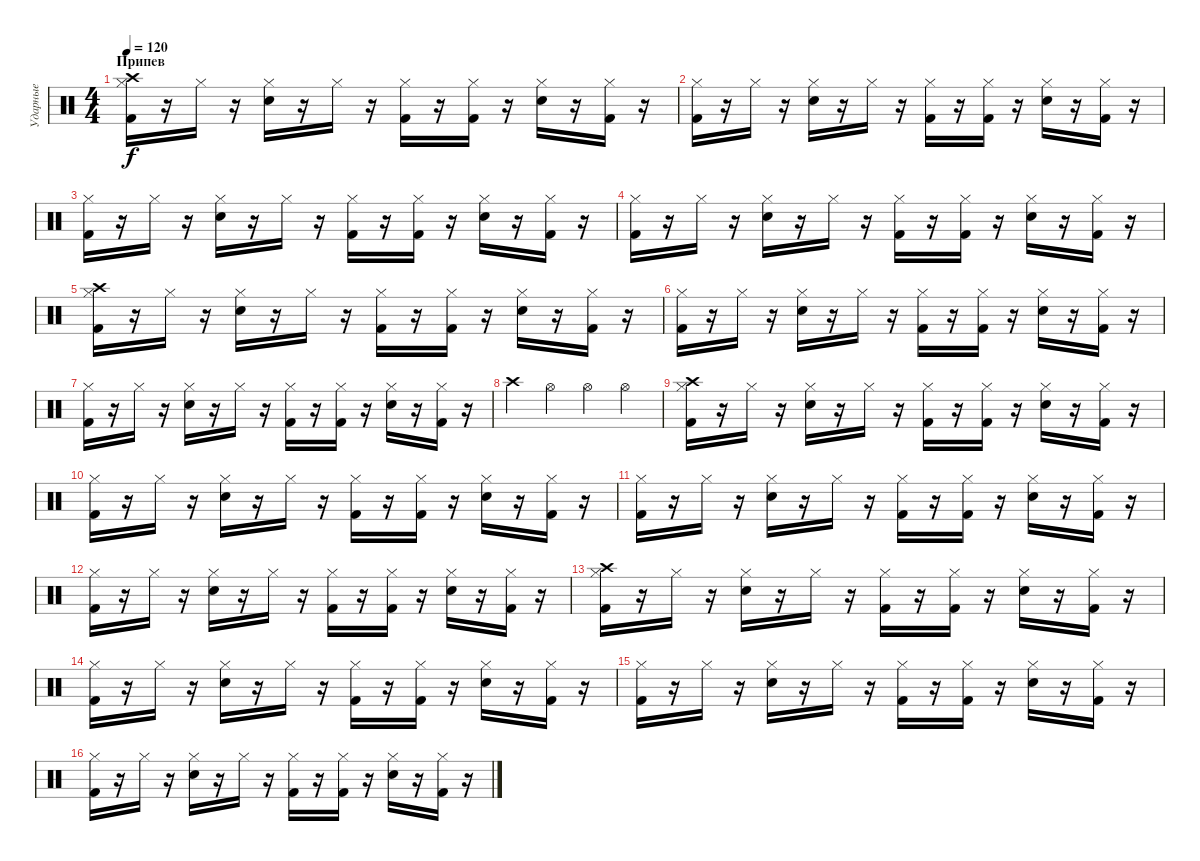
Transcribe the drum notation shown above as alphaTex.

\track ("Ударные" "Ударные") {instrument percussion}
\staff {score}
\articulation defaults
\ts (4 4)
\section ("" "Припев")
\tempo 120
\clef neutral
\ks c
("Hi-Hat (closed)" "Kick (hit) 2" "Crash high (hit)").16{dy f} r.16 "Hi-Hat (closed)".16 r.16 ("Hi-Hat (closed)" "Snare (hit) 2").16 r.16 "Hi-Hat (closed)".16 r.16 ("Hi-Hat (closed)" "Kick (hit) 2").16 r.16 ("Hi-Hat (closed)" "Kick (hit) 2").16 r.16 ("Hi-Hat (closed)" "Snare (hit) 2").16 r.16 ("Hi-Hat (closed)" "Kick (hit) 2").16 r.16 |
("Hi-Hat (closed)" "Kick (hit) 2").16 r.16 "Hi-Hat (closed)".16 r.16 ("Hi-Hat (closed)" "Snare (hit) 2").16 r.16 "Hi-Hat (closed)".16 r.16 ("Hi-Hat (closed)" "Kick (hit) 2").16 r.16 ("Hi-Hat (closed)" "Kick (hit) 2").16 r.16 ("Hi-Hat (closed)" "Snare (hit) 2").16 r.16 ("Hi-Hat (closed)" "Kick (hit) 2").16 r.16 |
("Hi-Hat (closed)" "Kick (hit) 2").16 r.16 "Hi-Hat (closed)".16 r.16 ("Hi-Hat (closed)" "Snare (hit) 2").16 r.16 "Hi-Hat (closed)".16 r.16 ("Hi-Hat (closed)" "Kick (hit) 2").16 r.16 ("Hi-Hat (closed)" "Kick (hit) 2").16 r.16 ("Hi-Hat (closed)" "Snare (hit) 2").16 r.16 ("Hi-Hat (closed)" "Kick (hit) 2").16 r.16 |
("Hi-Hat (closed)" "Kick (hit) 2").16 r.16 "Hi-Hat (closed)".16 r.16 ("Hi-Hat (closed)" "Snare (hit) 2").16 r.16 "Hi-Hat (closed)".16 r.16 ("Hi-Hat (closed)" "Kick (hit) 2").16 r.16 ("Hi-Hat (closed)" "Kick (hit) 2").16 r.16 ("Hi-Hat (closed)" "Snare (hit) 2").16 r.16 ("Hi-Hat (closed)" "Kick (hit) 2").16 r.16 |
("Hi-Hat (closed)" "Kick (hit) 2" "Crash high (hit)").16 r.16 "Hi-Hat (closed)".16 r.16 ("Hi-Hat (closed)" "Snare (hit) 2").16 r.16 "Hi-Hat (closed)".16 r.16 ("Hi-Hat (closed)" "Kick (hit) 2").16 r.16 ("Hi-Hat (closed)" "Kick (hit) 2").16 r.16 ("Hi-Hat (closed)" "Snare (hit) 2").16 r.16 ("Hi-Hat (closed)" "Kick (hit) 2").16 r.16 |
("Hi-Hat (closed)" "Kick (hit) 2").16 r.16 "Hi-Hat (closed)".16 r.16 ("Hi-Hat (closed)" "Snare (hit) 2").16 r.16 "Hi-Hat (closed)".16 r.16 ("Hi-Hat (closed)" "Kick (hit) 2").16 r.16 ("Hi-Hat (closed)" "Kick (hit) 2").16 r.16 ("Hi-Hat (closed)" "Snare (hit) 2").16 r.16 ("Hi-Hat (closed)" "Kick (hit) 2").16 r.16 |
("Hi-Hat (closed)" "Kick (hit) 2").16 r.16 "Hi-Hat (closed)".16 r.16 ("Hi-Hat (closed)" "Snare (hit) 2").16 r.16 "Hi-Hat (closed)".16 r.16 ("Hi-Hat (closed)" "Kick (hit) 2").16 r.16 ("Hi-Hat (closed)" "Kick (hit) 2").16 r.16 ("Hi-Hat (closed)" "Snare (hit) 2").16 r.16 ("Hi-Hat (closed)" "Kick (hit) 2").16 r.16 |
"Crash high (hit)".4 "Hi-Hat (open)".4 "Hi-Hat (open)".4 "Hi-Hat (open)".4 |
("Hi-Hat (closed)" "Kick (hit) 2" "Crash high (hit)").16 r.16 "Hi-Hat (closed)".16 r.16 ("Hi-Hat (closed)" "Snare (hit) 2").16 r.16 "Hi-Hat (closed)".16 r.16 ("Hi-Hat (closed)" "Kick (hit) 2").16 r.16 ("Hi-Hat (closed)" "Kick (hit) 2").16 r.16 ("Hi-Hat (closed)" "Snare (hit) 2").16 r.16 ("Hi-Hat (closed)" "Kick (hit) 2").16 r.16 |
("Hi-Hat (closed)" "Kick (hit) 2").16 r.16 "Hi-Hat (closed)".16 r.16 ("Hi-Hat (closed)" "Snare (hit) 2").16 r.16 "Hi-Hat (closed)".16 r.16 ("Hi-Hat (closed)" "Kick (hit) 2").16 r.16 ("Hi-Hat (closed)" "Kick (hit) 2").16 r.16 ("Hi-Hat (closed)" "Snare (hit) 2").16 r.16 ("Hi-Hat (closed)" "Kick (hit) 2").16 r.16 |
("Hi-Hat (closed)" "Kick (hit) 2").16 r.16 "Hi-Hat (closed)".16 r.16 ("Hi-Hat (closed)" "Snare (hit) 2").16 r.16 "Hi-Hat (closed)".16 r.16 ("Hi-Hat (closed)" "Kick (hit) 2").16 r.16 ("Hi-Hat (closed)" "Kick (hit) 2").16 r.16 ("Hi-Hat (closed)" "Snare (hit) 2").16 r.16 ("Hi-Hat (closed)" "Kick (hit) 2").16 r.16 |
("Hi-Hat (closed)" "Kick (hit) 2").16 r.16 "Hi-Hat (closed)".16 r.16 ("Hi-Hat (closed)" "Snare (hit) 2").16 r.16 "Hi-Hat (closed)".16 r.16 ("Hi-Hat (closed)" "Kick (hit) 2").16 r.16 ("Hi-Hat (closed)" "Kick (hit) 2").16 r.16 ("Hi-Hat (closed)" "Snare (hit) 2").16 r.16 ("Hi-Hat (closed)" "Kick (hit) 2").16 r.16 |
("Hi-Hat (closed)" "Kick (hit) 2" "Crash high (hit)").16 r.16 "Hi-Hat (closed)".16 r.16 ("Hi-Hat (closed)" "Snare (hit) 2").16 r.16 "Hi-Hat (closed)".16 r.16 ("Hi-Hat (closed)" "Kick (hit) 2").16 r.16 ("Hi-Hat (closed)" "Kick (hit) 2").16 r.16 ("Hi-Hat (closed)" "Snare (hit) 2").16 r.16 ("Hi-Hat (closed)" "Kick (hit) 2").16 r.16 |
("Hi-Hat (closed)" "Kick (hit) 2").16 r.16 "Hi-Hat (closed)".16 r.16 ("Hi-Hat (closed)" "Snare (hit) 2").16 r.16 "Hi-Hat (closed)".16 r.16 ("Hi-Hat (closed)" "Kick (hit) 2").16 r.16 ("Hi-Hat (closed)" "Kick (hit) 2").16 r.16 ("Hi-Hat (closed)" "Snare (hit) 2").16 r.16 ("Hi-Hat (closed)" "Kick (hit) 2").16 r.16 |
("Hi-Hat (closed)" "Kick (hit) 2").16 r.16 "Hi-Hat (closed)".16 r.16 ("Hi-Hat (closed)" "Snare (hit) 2").16 r.16 "Hi-Hat (closed)".16 r.16 ("Hi-Hat (closed)" "Kick (hit) 2").16 r.16 ("Hi-Hat (closed)" "Kick (hit) 2").16 r.16 ("Hi-Hat (closed)" "Snare (hit) 2").16 r.16 ("Hi-Hat (closed)" "Kick (hit) 2").16 r.16 |
("Hi-Hat (closed)" "Kick (hit) 2").16 r.16 "Hi-Hat (closed)".16 r.16 ("Hi-Hat (closed)" "Snare (hit) 2").16 r.16 "Hi-Hat (closed)".16 r.16 ("Hi-Hat (closed)" "Kick (hit) 2").16 r.16 ("Hi-Hat (closed)" "Kick (hit) 2").16 r.16 ("Hi-Hat (closed)" "Snare (hit) 2").16 r.16 ("Hi-Hat (closed)" "Kick (hit) 2").16 r.16
